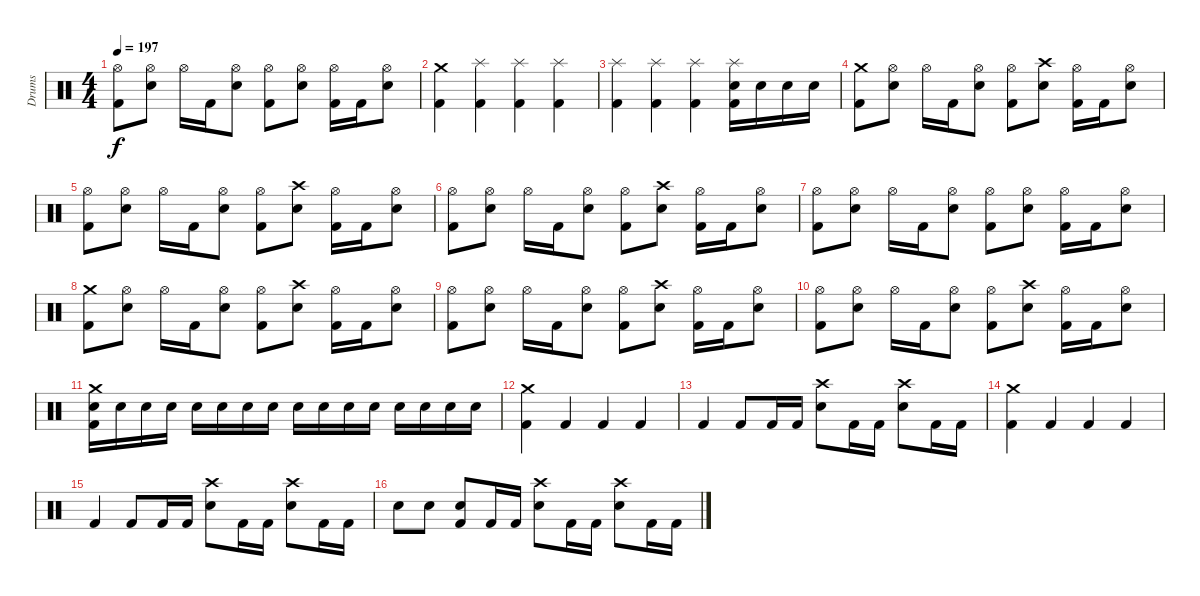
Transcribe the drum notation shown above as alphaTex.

\track ("Drums" "Drums") {instrument percussion}
\staff {score}
\articulation defaults
\ts (4 4)
\tempo 197
\clef neutral
\ks c
("Hi-Hat (open)" "Kick (hit) 2").8{dy f} ("Hi-Hat (open)" "Snare (hit) 2").8 "Hi-Hat (open)".16 "Kick (hit) 2".16 ("Hi-Hat (open)" "Snare (hit) 2").8 ("Hi-Hat (open)" "Kick (hit) 2").8 ("Hi-Hat (open)" "Snare (hit) 2").8 ("Hi-Hat (open)" "Kick (hit) 2").16 "Kick (hit) 2".16 ("Hi-Hat (open)" "Snare (hit) 2").8 |
("Crash medium (hit)" "Kick (hit) 2").4 ("Splash (hit)" "Kick (hit) 2").4 ("Splash (hit)" "Kick (hit) 2").4 ("Splash (hit)" "Kick (hit) 2").4 |
("Splash (hit)" "Kick (hit) 2").4 ("Splash (hit)" "Kick (hit) 2").4 ("Splash (hit)" "Kick (hit) 2").4 ("Splash (hit)" "Snare (hit) 2" "Kick (hit) 2").16 "Snare (hit) 2".16 "Snare (hit) 2".16 "Snare (hit) 2".16 |
("Crash medium (hit)" "Kick (hit) 2").8 ("Hi-Hat (open)" "Snare (hit) 2").8 "Hi-Hat (open)".16 "Kick (hit) 2".16 ("Hi-Hat (open)" "Snare (hit) 2").8 ("Hi-Hat (open)" "Kick (hit) 2").8 ("Crash high (hit)" "Snare (hit) 2").8 ("Hi-Hat (open)" "Kick (hit) 2").16 "Kick (hit) 2".16 ("Hi-Hat (open)" "Snare (hit) 2").8 |
("Hi-Hat (open)" "Kick (hit) 2").8 ("Hi-Hat (open)" "Snare (hit) 2").8 "Hi-Hat (open)".16 "Kick (hit) 2".16 ("Hi-Hat (open)" "Snare (hit) 2").8 ("Hi-Hat (open)" "Kick (hit) 2").8 ("Crash high (hit)" "Snare (hit) 2").8 ("Hi-Hat (open)" "Kick (hit) 2").16 "Kick (hit) 2".16 ("Hi-Hat (open)" "Snare (hit) 2").8 |
("Hi-Hat (open)" "Kick (hit) 2").8 ("Hi-Hat (open)" "Snare (hit) 2").8 "Hi-Hat (open)".16 "Kick (hit) 2".16 ("Hi-Hat (open)" "Snare (hit) 2").8 ("Hi-Hat (open)" "Kick (hit) 2").8 ("Crash high (hit)" "Snare (hit) 2").8 ("Hi-Hat (open)" "Kick (hit) 2").16 "Kick (hit) 2".16 ("Hi-Hat (open)" "Snare (hit) 2").8 |
("Hi-Hat (open)" "Kick (hit) 2").8 ("Hi-Hat (open)" "Snare (hit) 2").8 "Hi-Hat (open)".16 "Kick (hit) 2".16 ("Hi-Hat (open)" "Snare (hit) 2").8 ("Hi-Hat (open)" "Kick (hit) 2").8 ("Hi-Hat (open)" "Snare (hit) 2").8 ("Hi-Hat (open)" "Kick (hit) 2").16 "Kick (hit) 2".16 ("Hi-Hat (open)" "Snare (hit) 2").8 |
("Crash medium (hit)" "Kick (hit) 2").8 ("Hi-Hat (open)" "Snare (hit) 2").8 "Hi-Hat (open)".16 "Kick (hit) 2".16 ("Hi-Hat (open)" "Snare (hit) 2").8 ("Hi-Hat (open)" "Kick (hit) 2").8 ("Crash high (hit)" "Snare (hit) 2").8 ("Hi-Hat (open)" "Kick (hit) 2").16 "Kick (hit) 2".16 ("Hi-Hat (open)" "Snare (hit) 2").8 |
("Hi-Hat (open)" "Kick (hit) 2").8 ("Hi-Hat (open)" "Snare (hit) 2").8 "Hi-Hat (open)".16 "Kick (hit) 2".16 ("Hi-Hat (open)" "Snare (hit) 2").8 ("Hi-Hat (open)" "Kick (hit) 2").8 ("Crash high (hit)" "Snare (hit) 2").8 ("Hi-Hat (open)" "Kick (hit) 2").16 "Kick (hit) 2".16 ("Hi-Hat (open)" "Snare (hit) 2").8 |
("Hi-Hat (open)" "Kick (hit) 2").8 ("Hi-Hat (open)" "Snare (hit) 2").8 "Hi-Hat (open)".16 "Kick (hit) 2".16 ("Hi-Hat (open)" "Snare (hit) 2").8 ("Hi-Hat (open)" "Kick (hit) 2").8 ("Crash high (hit)" "Snare (hit) 2").8 ("Hi-Hat (open)" "Kick (hit) 2").16 "Kick (hit) 2".16 ("Hi-Hat (open)" "Snare (hit) 2").8 |
("Crash medium (hit)" "Snare (hit) 2" "Kick (hit) 2").16 "Snare (hit) 2".16 "Snare (hit) 2".16 "Snare (hit) 2".16 "Snare (hit) 2".16 "Snare (hit) 2".16 "Snare (hit) 2".16 "Snare (hit) 2".16 "Snare (hit) 2".16 "Snare (hit) 2".16 "Snare (hit) 2".16 "Snare (hit) 2".16 "Snare (hit) 2".16 "Snare (hit) 2".16 "Snare (hit) 2".16 "Snare (hit) 2".16 |
("Crash medium (hit)" "Kick (hit) 2").4 "Kick (hit) 2".4 "Kick (hit) 2".4 "Kick (hit) 2".4 |
"Kick (hit) 2".4 "Kick (hit) 2".8 "Kick (hit) 2".16 "Kick (hit) 2".16 ("Crash high (hit)" "Snare (hit) 2").8 "Kick (hit) 2".16 "Kick (hit) 2".16 ("Crash high (hit)" "Snare (hit) 2").8 "Kick (hit) 2".16 "Kick (hit) 2".16 |
("Crash medium (hit)" "Kick (hit) 2").4 "Kick (hit) 2".4 "Kick (hit) 2".4 "Kick (hit) 2".4 |
"Kick (hit) 2".4 "Kick (hit) 2".8 "Kick (hit) 2".16 "Kick (hit) 2".16 ("Crash high (hit)" "Snare (hit) 2").8 "Kick (hit) 2".16 "Kick (hit) 2".16 ("Crash high (hit)" "Snare (hit) 2").8 "Kick (hit) 2".16 "Kick (hit) 2".16 |
"Snare (hit) 2".8 "Snare (hit) 2".8 ("Snare (hit) 2" "Kick (hit) 2").8 "Kick (hit) 2".16 "Kick (hit) 2".16 ("Crash high (hit)" "Snare (hit) 2").8 "Kick (hit) 2".16 "Kick (hit) 2".16 ("Crash high (hit)" "Snare (hit) 2").8 "Kick (hit) 2".16 "Kick (hit) 2".16
